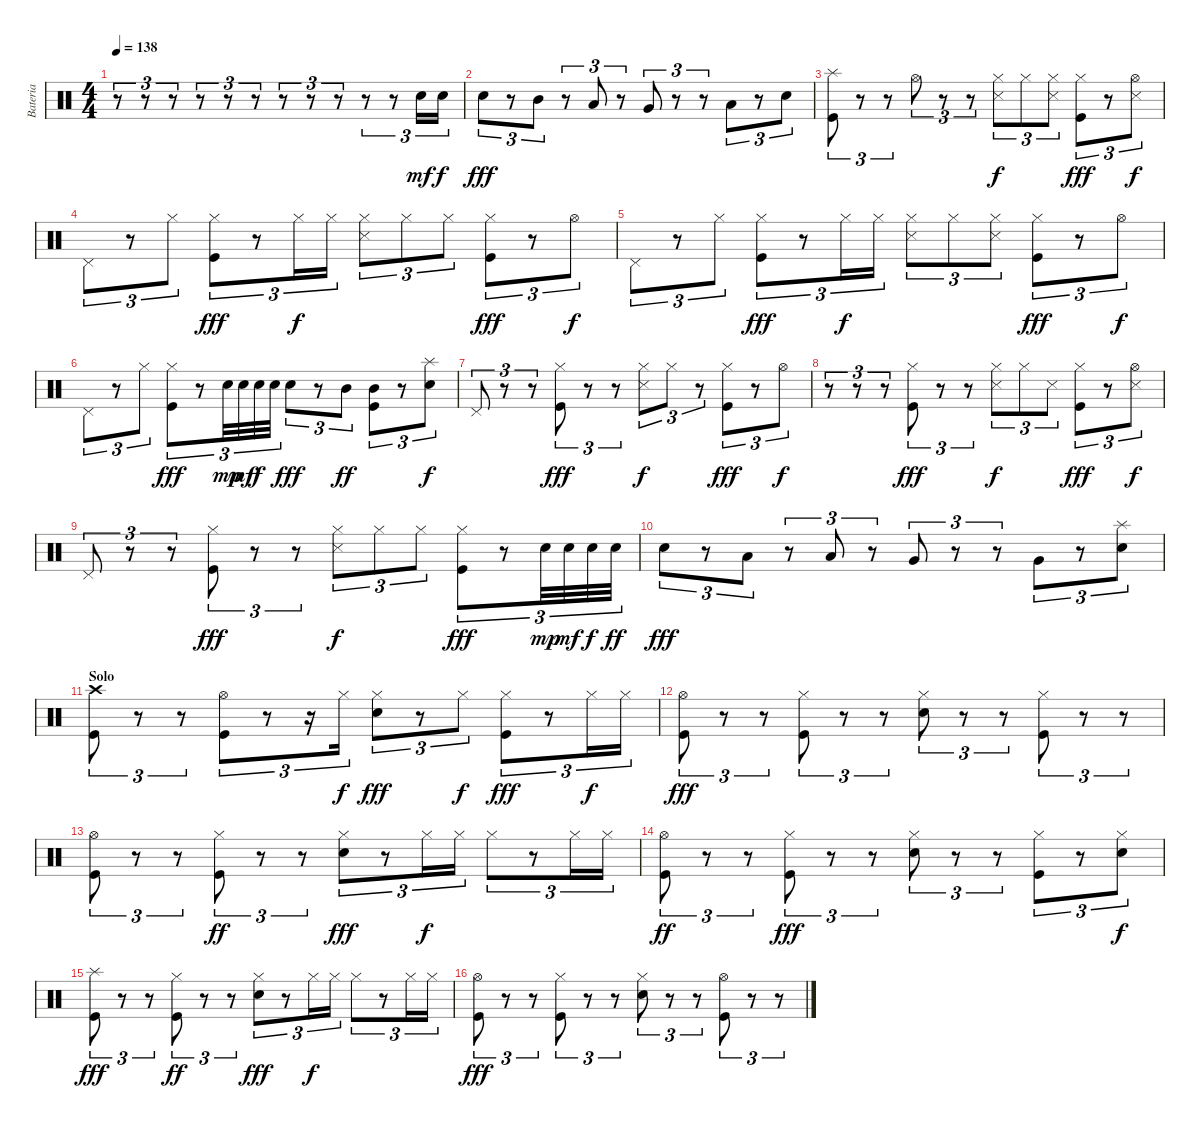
\track ("Bateria" "Bateria") {instrument percussion}
\staff {score}
\articulation defaults
\ts (4 4)
\tempo 138
\clef neutral
\ks c
r.8{tu (3 2) dy fff} r.8{tu (3 2)} r.8{tu (3 2)} r.8{tu (3 2)} r.8{tu (3 2)} r.8{tu (3 2)} r.8{tu (3 2)} r.8{tu (3 2)} r.8{tu (3 2)} r.8{tu (3 2)} r.8{tu (3 2)} "Electric Snare (hit)".16{tu (3 2) dy mf} "Electric Snare (hit)".16{tu (3 2) dy f} |
"Electric Snare (hit)".8{tu (3 2) dy fff} r.8{tu (3 2)} "Mid Tom (hit)".8{tu (3 2)} r.8{tu (3 2)} "Low Tom (hit)".8{tu (3 2)} r.8{tu (3 2)} "Very Low Tom (hit)".8{tu (3 2)} r.8{tu (3 2)} r.8{tu (3 2)} "Low Floor Tom (hit)".8{tu (3 2)} r.8{tu (3 2)} "Electric Snare (hit)".8{tu (3 2)} |
("Kick (hit)" "Splash (hit)").8{tu (3 2)} r.8{tu (3 2)} r.8{tu (3 2)} "Hi-Hat (open)".8{tu (3 2)} r.8{tu (3 2)} r.8{tu (3 2)} ("Snare (side stick) 3" "Hi-Hat (closed)").8{tu (3 2) dy f} "Hi-Hat (closed)".8{tu (3 2)} ("Snare (side stick) 3" "Hi-Hat (closed)").8{tu (3 2)} ("Kick (hit)" "Hi-Hat (closed)").8{tu (3 2) dy fff} r.8{tu (3 2)} ("Snare (side stick) 3" "Hi-Hat (open)").8{tu (3 2) dy f} |
"Pedal Hi-Hat (hit)".8{tu (3 2)} r.8{tu (3 2)} "Hi-Hat (closed)".8{tu (3 2)} ("Kick (hit)" "Hi-Hat (closed)").8{tu (3 2) dy fff} r.8{tu (3 2)} "Hi-Hat (closed)".16{tu (3 2) dy f} "Hi-Hat (closed)".16{tu (3 2)} ("Snare (side stick) 3" "Hi-Hat (closed)").8{tu (3 2)} "Hi-Hat (closed)".8{tu (3 2)} "Hi-Hat (closed)".8{tu (3 2)} ("Kick (hit)" "Hi-Hat (closed)").8{tu (3 2) dy fff} r.8{tu (3 2)} "Hi-Hat (open)".8{tu (3 2) dy f} |
"Pedal Hi-Hat (hit)".8{tu (3 2)} r.8{tu (3 2)} "Hi-Hat (closed)".8{tu (3 2)} ("Kick (hit)" "Hi-Hat (closed)").8{tu (3 2) dy fff} r.8{tu (3 2)} "Hi-Hat (closed)".16{tu (3 2) dy f} "Hi-Hat (closed)".16{tu (3 2)} ("Snare (side stick) 3" "Hi-Hat (closed)").8{tu (3 2)} "Hi-Hat (closed)".8{tu (3 2)} ("Snare (side stick) 3" "Hi-Hat (closed)").8{tu (3 2)} ("Kick (hit)" "Hi-Hat (closed)").8{tu (3 2) dy fff} r.8{tu (3 2)} "Hi-Hat (open)".8{tu (3 2) dy f} |
"Pedal Hi-Hat (hit)".8{tu (3 2)} r.8{tu (3 2)} "Hi-Hat (closed)".8{tu (3 2)} ("Kick (hit)" "Hi-Hat (closed)").8{tu (3 2) dy fff} r.8{tu (3 2)} "Electric Snare (hit)".32{tu (3 2) dy mp} "Electric Snare (hit)".32{tu (3 2) dy mf} "Electric Snare (hit)".32{tu (3 2) dy f} "Electric Snare (hit)".32{tu (3 2)} "Electric Snare (hit)".8{tu (3 2) dy fff} r.8{tu (3 2)} "Mid Tom (hit)".8{tu (3 2) dy ff} ("Kick (hit)" "Mid Tom (hit)").8{tu (3 2)} r.8{tu (3 2)} ("Electric Snare (hit)" "Splash (hit)").8{tu (3 2) dy f} |
"Pedal Hi-Hat (hit)".8{tu (3 2)} r.8{tu (3 2)} r.8{tu (3 2)} ("Kick (hit)" "Hi-Hat (closed)").8{tu (3 2) dy fff} r.8{tu (3 2)} r.8{tu (3 2)} ("Snare (side stick) 3" "Hi-Hat (closed)").8{tu (3 2) dy f} "Hi-Hat (closed)".8{tu (3 2)} r.8{tu (3 2)} ("Kick (hit)" "Hi-Hat (closed)").8{tu (3 2) dy fff} r.8{tu (3 2)} "Hi-Hat (open)".8{tu (3 2) dy f} |
r.8{tu (3 2)} r.8{tu (3 2)} r.8{tu (3 2)} ("Kick (hit)" "Hi-Hat (closed)").8{tu (3 2) dy fff} r.8{tu (3 2)} r.8{tu (3 2)} ("Snare (side stick) 3" "Hi-Hat (closed)").8{tu (3 2) dy f} "Hi-Hat (closed)".8{tu (3 2)} "Snare (side stick) 3".8{tu (3 2)} ("Kick (hit)" "Hi-Hat (closed)").8{tu (3 2) dy fff} r.8{tu (3 2)} ("Snare (side stick) 3" "Hi-Hat (open)").8{tu (3 2) dy f} |
"Pedal Hi-Hat (hit)".8{tu (3 2)} r.8{tu (3 2)} r.8{tu (3 2)} ("Kick (hit)" "Hi-Hat (closed)").8{tu (3 2) dy fff} r.8{tu (3 2)} r.8{tu (3 2)} ("Snare (side stick) 3" "Hi-Hat (closed)").8{tu (3 2) dy f} "Hi-Hat (closed)".8{tu (3 2)} "Hi-Hat (closed)".8{tu (3 2)} ("Kick (hit)" "Hi-Hat (closed)").8{tu (3 2) dy fff} r.8{tu (3 2)} "Electric Snare (hit)".32{tu (3 2) dy mp} "Electric Snare (hit)".32{tu (3 2) dy mf} "Electric Snare (hit)".32{tu (3 2) dy f} "Electric Snare (hit)".32{tu (3 2) dy ff} |
"Electric Snare (hit)".8{tu (3 2) dy fff} r.8{tu (3 2)} "Low Tom (hit)".8{tu (3 2)} r.8{tu (3 2)} "Low Tom (hit)".8{tu (3 2)} r.8{tu (3 2)} "Very Low Tom (hit)".8{tu (3 2)} r.8{tu (3 2)} r.8{tu (3 2)} "Very Low Tom (hit)".8{tu (3 2)} r.8{tu (3 2)} ("Electric Snare (hit)" "Splash (hit)").8{tu (3 2)} |
\section ("" "Solo")
("Kick (hit)" "Crash high (hit)").8{tu (3 2)} r.8{tu (3 2)} r.8{tu (3 2)} ("Kick (hit)" "Hi-Hat (open)").8{tu (3 2)} r.8{tu (3 2)} r.16{tu (3 2)} "Hi-Hat (closed)".16{tu (3 2) dy f} ("Electric Snare (hit)" "Hi-Hat (closed)").8{tu (3 2) dy fff} r.8{tu (3 2)} "Hi-Hat (closed)".8{tu (3 2) dy f} ("Kick (hit)" "Hi-Hat (closed)").8{tu (3 2) dy fff} r.8{tu (3 2)} "Hi-Hat (closed)".16{tu (3 2) dy f} "Hi-Hat (closed)".16{tu (3 2)} |
("Kick (hit)" "Hi-Hat (open)").8{tu (3 2) dy fff} r.8{tu (3 2)} r.8{tu (3 2)} ("Kick (hit)" "Hi-Hat (closed)").8{tu (3 2)} r.8{tu (3 2)} r.8{tu (3 2)} ("Electric Snare (hit)" "Hi-Hat (closed)").8{tu (3 2)} r.8{tu (3 2)} r.8{tu (3 2)} ("Kick (hit)" "Hi-Hat (closed)").8{tu (3 2)} r.8{tu (3 2)} r.8{tu (3 2)} |
("Kick (hit)" "Hi-Hat (open)").8{tu (3 2)} r.8{tu (3 2)} r.8{tu (3 2)} ("Kick (hit)" "Hi-Hat (closed)").8{tu (3 2) dy ff} r.8{tu (3 2)} r.8{tu (3 2)} ("Electric Snare (hit)" "Hi-Hat (closed)").8{tu (3 2) dy fff} r.8{tu (3 2)} "Hi-Hat (closed)".16{tu (3 2) dy f} "Hi-Hat (closed)".16{tu (3 2)} "Hi-Hat (closed)".8{tu (3 2)} r.8{tu (3 2)} "Hi-Hat (closed)".16{tu (3 2)} "Hi-Hat (closed)".16{tu (3 2)} |
("Kick (hit)" "Hi-Hat (open)").8{tu (3 2) dy ff} r.8{tu (3 2)} r.8{tu (3 2)} ("Kick (hit)" "Hi-Hat (closed)").8{tu (3 2) dy fff} r.8{tu (3 2)} r.8{tu (3 2)} ("Electric Snare (hit)" "Hi-Hat (closed)").8{tu (3 2)} r.8{tu (3 2)} r.8{tu (3 2)} ("Kick (hit)" "Hi-Hat (closed)").8{tu (3 2)} r.8{tu (3 2)} ("Electric Snare (hit)" "Hi-Hat (closed)").8{tu (3 2) dy f} |
("Kick (hit)" "Splash (hit)").8{tu (3 2) dy fff} r.8{tu (3 2)} r.8{tu (3 2)} ("Kick (hit)" "Hi-Hat (closed)").8{tu (3 2) dy ff} r.8{tu (3 2)} r.8{tu (3 2)} ("Electric Snare (hit)" "Hi-Hat (closed)").8{tu (3 2) dy fff} r.8{tu (3 2)} "Hi-Hat (closed)".16{tu (3 2) dy f} "Hi-Hat (closed)".16{tu (3 2)} "Hi-Hat (closed)".8{tu (3 2)} r.8{tu (3 2)} "Hi-Hat (closed)".16{tu (3 2)} "Hi-Hat (closed)".16{tu (3 2)} |
("Kick (hit)" "Hi-Hat (open)").8{tu (3 2) dy fff} r.8{tu (3 2)} r.8{tu (3 2)} ("Kick (hit)" "Hi-Hat (closed)").8{tu (3 2)} r.8{tu (3 2)} r.8{tu (3 2)} ("Electric Snare (hit)" "Hi-Hat (closed)").8{tu (3 2)} r.8{tu (3 2)} r.8{tu (3 2)} ("Kick (hit)" "Hi-Hat (open)").8{tu (3 2)} r.8{tu (3 2)} r.8{tu (3 2)}
